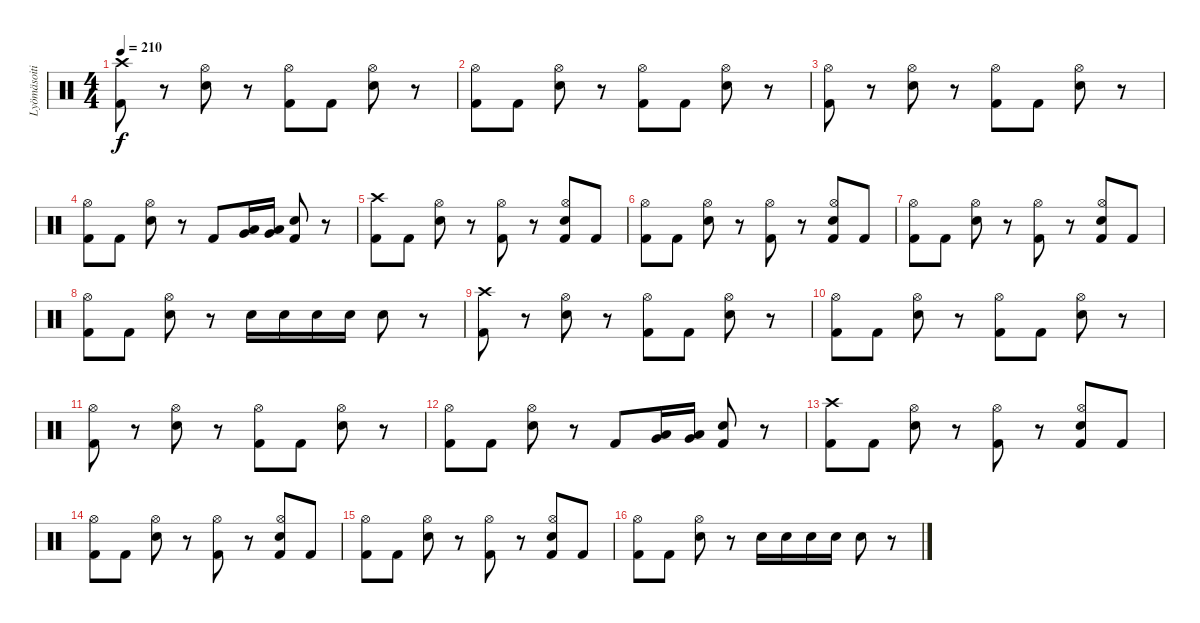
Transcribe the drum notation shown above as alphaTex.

\track ("Lyömäsoitin" "Lyömäsoiti") {instrument percussion}
\staff {score}
\articulation defaults
\ts (4 4)
\tempo 210
\clef neutral
\ks c
("Crash high (hit)" "Kick (hit) 2").8{dy f} r.8 ("Hi-Hat (open)" "Electric Snare (hit)").8 r.8 ("Hi-Hat (open)" "Kick (hit) 2").8 "Kick (hit) 2".8 ("Hi-Hat (open)" "Electric Snare (hit)").8 r.8 |
("Hi-Hat (open)" "Kick (hit) 2").8 "Kick (hit) 2".8 ("Hi-Hat (open)" "Electric Snare (hit)").8 r.8 ("Hi-Hat (open)" "Kick (hit) 2").8 "Kick (hit) 2".8 ("Hi-Hat (open)" "Electric Snare (hit)").8 r.8 |
("Hi-Hat (open)" "Kick (hit) 2").8 r.8 ("Hi-Hat (open)" "Electric Snare (hit)").8 r.8 ("Hi-Hat (open)" "Kick (hit) 2").8 "Kick (hit) 2".8 ("Hi-Hat (open)" "Electric Snare (hit)").8 r.8 |
("Hi-Hat (open)" "Kick (hit) 2").8 "Kick (hit) 2".8 ("Hi-Hat (open)" "Electric Snare (hit)").8 r.8 "Kick (hit) 2".8 ("Low Floor Tom (hit)" "Very Low Tom (hit)").16 ("Low Floor Tom (hit)" "Very Low Tom (hit)").16 ("Electric Snare (hit)" "Kick (hit) 2").8 r.8 |
("Crash high (hit)" "Kick (hit) 2").8 "Kick (hit) 2".8 ("Hi-Hat (open)" "Electric Snare (hit)").8 r.8 ("Hi-Hat (open)" "Kick (hit) 2").8 r.8 ("Hi-Hat (open)" "Electric Snare (hit)" "Kick (hit) 2").8 "Kick (hit) 2".8 |
("Hi-Hat (open)" "Kick (hit) 2").8 "Kick (hit) 2".8 ("Hi-Hat (open)" "Electric Snare (hit)").8 r.8 ("Hi-Hat (open)" "Kick (hit) 2").8 r.8 ("Hi-Hat (open)" "Electric Snare (hit)" "Kick (hit) 2").8 "Kick (hit) 2".8 |
("Hi-Hat (open)" "Kick (hit) 2").8 "Kick (hit) 2".8 ("Hi-Hat (open)" "Electric Snare (hit)").8 r.8 ("Hi-Hat (open)" "Kick (hit) 2").8 r.8 ("Hi-Hat (open)" "Electric Snare (hit)" "Kick (hit) 2").8 "Kick (hit) 2".8 |
("Hi-Hat (open)" "Kick (hit) 2").8 "Kick (hit) 2".8 ("Hi-Hat (open)" "Electric Snare (hit)").8 r.8 "Electric Snare (hit)".16 "Electric Snare (hit)".16 "Electric Snare (hit)".16 "Electric Snare (hit)".16 "Electric Snare (hit)".8 r.8 |
("Crash high (hit)" "Kick (hit) 2").8 r.8 ("Hi-Hat (open)" "Electric Snare (hit)").8 r.8 ("Hi-Hat (open)" "Kick (hit) 2").8 "Kick (hit) 2".8 ("Hi-Hat (open)" "Electric Snare (hit)").8 r.8 |
("Hi-Hat (open)" "Kick (hit) 2").8 "Kick (hit) 2".8 ("Hi-Hat (open)" "Electric Snare (hit)").8 r.8 ("Hi-Hat (open)" "Kick (hit) 2").8 "Kick (hit) 2".8 ("Hi-Hat (open)" "Electric Snare (hit)").8 r.8 |
("Hi-Hat (open)" "Kick (hit) 2").8 r.8 ("Hi-Hat (open)" "Electric Snare (hit)").8 r.8 ("Hi-Hat (open)" "Kick (hit) 2").8 "Kick (hit) 2".8 ("Hi-Hat (open)" "Electric Snare (hit)").8 r.8 |
("Hi-Hat (open)" "Kick (hit) 2").8 "Kick (hit) 2".8 ("Hi-Hat (open)" "Electric Snare (hit)").8 r.8 "Kick (hit) 2".8 ("Low Floor Tom (hit)" "Very Low Tom (hit)").16 ("Low Floor Tom (hit)" "Very Low Tom (hit)").16 ("Electric Snare (hit)" "Kick (hit) 2").8 r.8 |
("Crash high (hit)" "Kick (hit) 2").8 "Kick (hit) 2".8 ("Hi-Hat (open)" "Electric Snare (hit)").8 r.8 ("Hi-Hat (open)" "Kick (hit) 2").8 r.8 ("Hi-Hat (open)" "Electric Snare (hit)" "Kick (hit) 2").8 "Kick (hit) 2".8 |
("Hi-Hat (open)" "Kick (hit) 2").8 "Kick (hit) 2".8 ("Hi-Hat (open)" "Electric Snare (hit)").8 r.8 ("Hi-Hat (open)" "Kick (hit) 2").8 r.8 ("Hi-Hat (open)" "Electric Snare (hit)" "Kick (hit) 2").8 "Kick (hit) 2".8 |
("Hi-Hat (open)" "Kick (hit) 2").8 "Kick (hit) 2".8 ("Hi-Hat (open)" "Electric Snare (hit)").8 r.8 ("Hi-Hat (open)" "Kick (hit) 2").8 r.8 ("Hi-Hat (open)" "Electric Snare (hit)" "Kick (hit) 2").8 "Kick (hit) 2".8 |
("Hi-Hat (open)" "Kick (hit) 2").8 "Kick (hit) 2".8 ("Hi-Hat (open)" "Electric Snare (hit)").8 r.8 "Electric Snare (hit)".16 "Electric Snare (hit)".16 "Electric Snare (hit)".16 "Electric Snare (hit)".16 "Electric Snare (hit)".8 r.8
